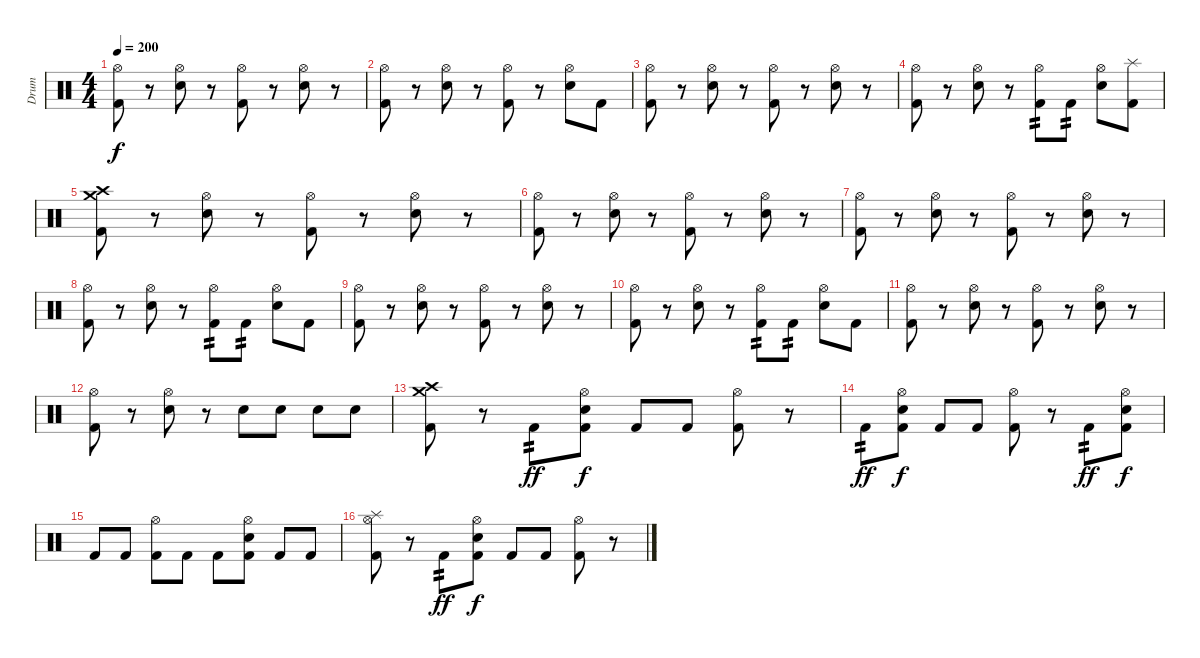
\track ("Drum" "Drum") {instrument percussion}
\staff {score}
\articulation defaults
\ts (4 4)
\tempo 200
\clef neutral
\ks c
("Hi-Hat (open)" "Kick (hit) 2").8{dy f} r.8 ("Hi-Hat (open)" "Snare (hit) 2").8 r.8 ("Hi-Hat (open)" "Kick (hit) 2").8 r.8 ("Hi-Hat (open)" "Snare (hit) 2").8 r.8 |
("Hi-Hat (open)" "Kick (hit) 2").8 r.8 ("Hi-Hat (open)" "Snare (hit) 2").8 r.8 ("Hi-Hat (open)" "Kick (hit) 2").8 r.8 ("Hi-Hat (open)" "Snare (hit) 2").8 "Kick (hit) 2".8 |
("Hi-Hat (open)" "Kick (hit) 2").8 r.8 ("Hi-Hat (open)" "Snare (hit) 2").8 r.8 ("Hi-Hat (open)" "Kick (hit) 2").8 r.8 ("Hi-Hat (open)" "Snare (hit) 2").8 r.8 |
("Hi-Hat (open)" "Kick (hit) 2").8 r.8 ("Hi-Hat (open)" "Snare (hit) 2").8 r.8 ("Hi-Hat (open)" "Kick (hit) 2").8{tp 2} "Kick (hit) 2".8{tp 2} ("Hi-Hat (open)" "Snare (hit) 2").8 ("Splash (hit)" "Kick (hit) 2").8 |
("Crash high (hit)" "Crash medium (hit)" "Kick (hit) 2").8 r.8 ("Hi-Hat (open)" "Snare (hit) 2").8 r.8 ("Hi-Hat (open)" "Kick (hit) 2").8 r.8 ("Hi-Hat (open)" "Snare (hit) 2").8 r.8 |
("Hi-Hat (open)" "Kick (hit) 2").8 r.8 ("Hi-Hat (open)" "Snare (hit) 2").8 r.8 ("Hi-Hat (open)" "Kick (hit) 2").8 r.8 ("Hi-Hat (open)" "Snare (hit) 2").8 r.8 |
("Hi-Hat (open)" "Kick (hit) 2").8 r.8 ("Hi-Hat (open)" "Snare (hit) 2").8 r.8 ("Hi-Hat (open)" "Kick (hit) 2").8 r.8 ("Hi-Hat (open)" "Snare (hit) 2").8 r.8 |
("Hi-Hat (open)" "Kick (hit) 2").8 r.8 ("Hi-Hat (open)" "Snare (hit) 2").8 r.8 ("Hi-Hat (open)" "Kick (hit) 2").8{tp 2} "Kick (hit) 2".8{tp 2} ("Hi-Hat (open)" "Snare (hit) 2").8 "Kick (hit) 2".8 |
("Hi-Hat (open)" "Kick (hit) 2").8 r.8 ("Hi-Hat (open)" "Snare (hit) 2").8 r.8 ("Hi-Hat (open)" "Kick (hit) 2").8 r.8 ("Hi-Hat (open)" "Snare (hit) 2").8 r.8 |
("Hi-Hat (open)" "Kick (hit) 2").8 r.8 ("Hi-Hat (open)" "Snare (hit) 2").8 r.8 ("Hi-Hat (open)" "Kick (hit) 2").8{tp 2} "Kick (hit) 2".8{tp 2} ("Hi-Hat (open)" "Snare (hit) 2").8 "Kick (hit) 2".8 |
("Hi-Hat (open)" "Kick (hit) 2").8 r.8 ("Hi-Hat (open)" "Snare (hit) 2").8 r.8 ("Hi-Hat (open)" "Kick (hit) 2").8 r.8 ("Hi-Hat (open)" "Snare (hit) 2").8 r.8 |
("Hi-Hat (open)" "Kick (hit) 2").8 r.8 ("Hi-Hat (open)" "Snare (hit) 2").8 r.8 "Snare (hit) 2".8 "Snare (hit) 2".8 "Snare (hit) 2".8 "Snare (hit) 2".8 |
("Crash medium (hit)" "Crash high (hit)" "Kick (hit) 2").8 r.8 "Kick (hit) 2".8{tp 2 dy ff} ("Hi-Hat (open)" "Snare (hit) 2" "Kick (hit) 2").8{dy f} "Kick (hit) 2".8 "Kick (hit) 2".8 ("Hi-Hat (open)" "Kick (hit) 2").8 r.8 |
"Kick (hit) 2".8{tp 2 dy ff} ("Hi-Hat (open)" "Snare (hit) 2" "Kick (hit) 2").8{dy f} "Kick (hit) 2".8 "Kick (hit) 2".8 ("Hi-Hat (open)" "Kick (hit) 2").8 r.8 "Kick (hit) 2".8{tp 2 dy ff} ("Hi-Hat (open)" "Snare (hit) 2" "Kick (hit) 2").8{dy f} |
"Kick (hit) 2".8 "Kick (hit) 2".8 ("Hi-Hat (open)" "Kick (hit) 2").8 "Kick (hit) 2".8 "Kick (hit) 2".8 ("Hi-Hat (open)" "Snare (hit) 2" "Kick (hit) 2").8 "Kick (hit) 2".8 "Kick (hit) 2".8 |
("Hi-Hat (open)" "Splash (hit)" "Kick (hit) 2").8 r.8 "Kick (hit) 2".8{tp 2 dy ff} ("Hi-Hat (open)" "Snare (hit) 2" "Kick (hit) 2").8{dy f} "Kick (hit) 2".8 "Kick (hit) 2".8 ("Hi-Hat (open)" "Kick (hit) 2").8 r.8
